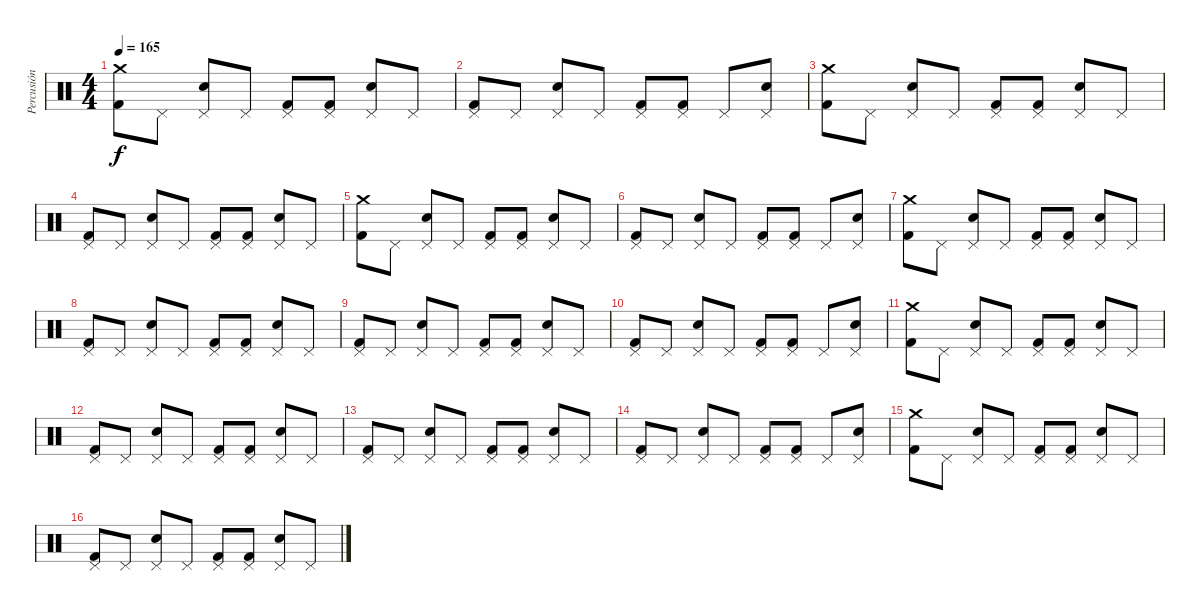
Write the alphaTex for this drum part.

\track ("Percusión" "Percusión") {instrument percussion}
\staff {score}
\articulation defaults
\ts (4 4)
\tempo 165
\clef neutral
\ks c
("Crash medium (hit)" "Kick (hit) 2").8{dy f} "Pedal Hi-Hat (hit)".8 ("Pedal Hi-Hat (hit)" "Electric Snare (hit)").8 "Pedal Hi-Hat (hit)".8 ("Pedal Hi-Hat (hit)" "Kick (hit) 2").8 ("Pedal Hi-Hat (hit)" "Kick (hit) 2").8 ("Pedal Hi-Hat (hit)" "Electric Snare (hit)").8 "Pedal Hi-Hat (hit)".8 |
("Pedal Hi-Hat (hit)" "Kick (hit) 2").8 "Pedal Hi-Hat (hit)".8 ("Pedal Hi-Hat (hit)" "Electric Snare (hit)").8 "Pedal Hi-Hat (hit)".8 ("Pedal Hi-Hat (hit)" "Kick (hit) 2").8 ("Pedal Hi-Hat (hit)" "Kick (hit) 2").8 "Pedal Hi-Hat (hit)".8 ("Pedal Hi-Hat (hit)" "Electric Snare (hit)").8 |
("Crash medium (hit)" "Kick (hit) 2").8 "Pedal Hi-Hat (hit)".8 ("Pedal Hi-Hat (hit)" "Electric Snare (hit)").8 "Pedal Hi-Hat (hit)".8 ("Pedal Hi-Hat (hit)" "Kick (hit) 2").8 ("Pedal Hi-Hat (hit)" "Kick (hit) 2").8 ("Pedal Hi-Hat (hit)" "Electric Snare (hit)").8 "Pedal Hi-Hat (hit)".8 |
("Pedal Hi-Hat (hit)" "Kick (hit) 2").8 "Pedal Hi-Hat (hit)".8 ("Pedal Hi-Hat (hit)" "Electric Snare (hit)").8 "Pedal Hi-Hat (hit)".8 ("Pedal Hi-Hat (hit)" "Kick (hit) 2").8 ("Pedal Hi-Hat (hit)" "Kick (hit) 2").8 ("Pedal Hi-Hat (hit)" "Electric Snare (hit)").8 "Pedal Hi-Hat (hit)".8 |
("Crash medium (hit)" "Kick (hit) 2").8 "Pedal Hi-Hat (hit)".8 ("Pedal Hi-Hat (hit)" "Electric Snare (hit)").8 "Pedal Hi-Hat (hit)".8 ("Pedal Hi-Hat (hit)" "Kick (hit) 2").8 ("Pedal Hi-Hat (hit)" "Kick (hit) 2").8 ("Pedal Hi-Hat (hit)" "Electric Snare (hit)").8 "Pedal Hi-Hat (hit)".8 |
("Pedal Hi-Hat (hit)" "Kick (hit) 2").8 "Pedal Hi-Hat (hit)".8 ("Pedal Hi-Hat (hit)" "Electric Snare (hit)").8 "Pedal Hi-Hat (hit)".8 ("Pedal Hi-Hat (hit)" "Kick (hit) 2").8 ("Pedal Hi-Hat (hit)" "Kick (hit) 2").8 "Pedal Hi-Hat (hit)".8 ("Pedal Hi-Hat (hit)" "Electric Snare (hit)").8 |
("Crash medium (hit)" "Kick (hit) 2").8 "Pedal Hi-Hat (hit)".8 ("Pedal Hi-Hat (hit)" "Electric Snare (hit)").8 "Pedal Hi-Hat (hit)".8 ("Pedal Hi-Hat (hit)" "Kick (hit) 2").8 ("Pedal Hi-Hat (hit)" "Kick (hit) 2").8 ("Pedal Hi-Hat (hit)" "Electric Snare (hit)").8 "Pedal Hi-Hat (hit)".8 |
("Pedal Hi-Hat (hit)" "Kick (hit) 2").8 "Pedal Hi-Hat (hit)".8 ("Pedal Hi-Hat (hit)" "Electric Snare (hit)").8 "Pedal Hi-Hat (hit)".8 ("Pedal Hi-Hat (hit)" "Kick (hit) 2").8 ("Pedal Hi-Hat (hit)" "Kick (hit) 2").8 ("Pedal Hi-Hat (hit)" "Electric Snare (hit)").8 "Pedal Hi-Hat (hit)".8 |
("Pedal Hi-Hat (hit)" "Kick (hit) 2").8 "Pedal Hi-Hat (hit)".8 ("Pedal Hi-Hat (hit)" "Electric Snare (hit)").8 "Pedal Hi-Hat (hit)".8 ("Pedal Hi-Hat (hit)" "Kick (hit) 2").8 ("Pedal Hi-Hat (hit)" "Kick (hit) 2").8 ("Pedal Hi-Hat (hit)" "Electric Snare (hit)").8 "Pedal Hi-Hat (hit)".8 |
("Pedal Hi-Hat (hit)" "Kick (hit) 2").8 "Pedal Hi-Hat (hit)".8 ("Pedal Hi-Hat (hit)" "Electric Snare (hit)").8 "Pedal Hi-Hat (hit)".8 ("Pedal Hi-Hat (hit)" "Kick (hit) 2").8 ("Pedal Hi-Hat (hit)" "Kick (hit) 2").8 "Pedal Hi-Hat (hit)".8 ("Pedal Hi-Hat (hit)" "Electric Snare (hit)").8 |
("Crash medium (hit)" "Kick (hit) 2").8 "Pedal Hi-Hat (hit)".8 ("Pedal Hi-Hat (hit)" "Electric Snare (hit)").8 "Pedal Hi-Hat (hit)".8 ("Pedal Hi-Hat (hit)" "Kick (hit) 2").8 ("Pedal Hi-Hat (hit)" "Kick (hit) 2").8 ("Pedal Hi-Hat (hit)" "Electric Snare (hit)").8 "Pedal Hi-Hat (hit)".8 |
("Pedal Hi-Hat (hit)" "Kick (hit) 2").8 "Pedal Hi-Hat (hit)".8 ("Pedal Hi-Hat (hit)" "Electric Snare (hit)").8 "Pedal Hi-Hat (hit)".8 ("Pedal Hi-Hat (hit)" "Kick (hit) 2").8 ("Pedal Hi-Hat (hit)" "Kick (hit) 2").8 ("Pedal Hi-Hat (hit)" "Electric Snare (hit)").8 "Pedal Hi-Hat (hit)".8 |
("Pedal Hi-Hat (hit)" "Kick (hit) 2").8 "Pedal Hi-Hat (hit)".8 ("Pedal Hi-Hat (hit)" "Electric Snare (hit)").8 "Pedal Hi-Hat (hit)".8 ("Pedal Hi-Hat (hit)" "Kick (hit) 2").8 ("Pedal Hi-Hat (hit)" "Kick (hit) 2").8 ("Pedal Hi-Hat (hit)" "Electric Snare (hit)").8 "Pedal Hi-Hat (hit)".8 |
("Pedal Hi-Hat (hit)" "Kick (hit) 2").8 "Pedal Hi-Hat (hit)".8 ("Pedal Hi-Hat (hit)" "Electric Snare (hit)").8 "Pedal Hi-Hat (hit)".8 ("Pedal Hi-Hat (hit)" "Kick (hit) 2").8 ("Pedal Hi-Hat (hit)" "Kick (hit) 2").8 "Pedal Hi-Hat (hit)".8 ("Pedal Hi-Hat (hit)" "Electric Snare (hit)").8 |
("Crash medium (hit)" "Kick (hit) 2").8 "Pedal Hi-Hat (hit)".8 ("Pedal Hi-Hat (hit)" "Electric Snare (hit)").8 "Pedal Hi-Hat (hit)".8 ("Pedal Hi-Hat (hit)" "Kick (hit) 2").8 ("Pedal Hi-Hat (hit)" "Kick (hit) 2").8 ("Pedal Hi-Hat (hit)" "Electric Snare (hit)").8 "Pedal Hi-Hat (hit)".8 |
("Pedal Hi-Hat (hit)" "Kick (hit) 2").8 "Pedal Hi-Hat (hit)".8 ("Pedal Hi-Hat (hit)" "Electric Snare (hit)").8 "Pedal Hi-Hat (hit)".8 ("Pedal Hi-Hat (hit)" "Kick (hit) 2").8 ("Pedal Hi-Hat (hit)" "Kick (hit) 2").8 ("Pedal Hi-Hat (hit)" "Electric Snare (hit)").8 "Pedal Hi-Hat (hit)".8
